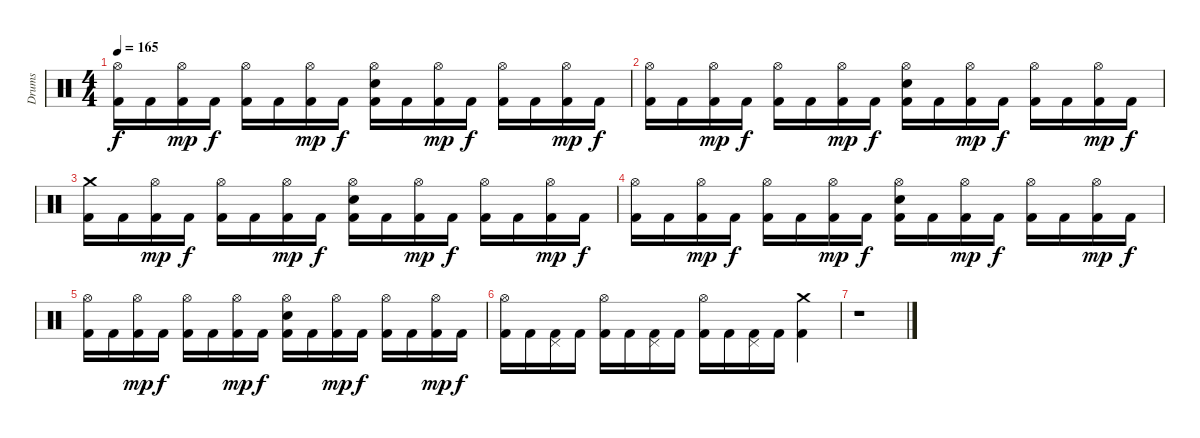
\track ("Drums" "Drums") {instrument percussion}
\staff {score}
\articulation defaults
\ts (4 4)
\tempo 165
\clef neutral
\ks c
("Kick (hit) 2" "Hi-Hat (open)").16{dy f} "Kick (hit) 2".16 ("Kick (hit) 2" "Hi-Hat (open)").16{dy mp} "Kick (hit) 2".16{dy f} ("Kick (hit) 2" "Hi-Hat (open)").16 "Kick (hit) 2".16 ("Kick (hit) 2" "Hi-Hat (open)").16{dy mp} "Kick (hit) 2".16{dy f} ("Kick (hit) 2" "Electric Snare (hit)" "Hi-Hat (open)").16 "Kick (hit) 2".16 ("Kick (hit) 2" "Hi-Hat (open)").16{dy mp} "Kick (hit) 2".16{dy f} ("Kick (hit) 2" "Hi-Hat (open)").16 "Kick (hit) 2".16 ("Kick (hit) 2" "Hi-Hat (open)").16{dy mp} "Kick (hit) 2".16{dy f} |
("Kick (hit) 2" "Hi-Hat (open)").16 "Kick (hit) 2".16 ("Kick (hit) 2" "Hi-Hat (open)").16{dy mp} "Kick (hit) 2".16{dy f} ("Kick (hit) 2" "Hi-Hat (open)").16 "Kick (hit) 2".16 ("Kick (hit) 2" "Hi-Hat (open)").16{dy mp} "Kick (hit) 2".16{dy f} ("Kick (hit) 2" "Electric Snare (hit)" "Hi-Hat (open)").16 "Kick (hit) 2".16 ("Kick (hit) 2" "Hi-Hat (open)").16{dy mp} "Kick (hit) 2".16{dy f} ("Kick (hit) 2" "Hi-Hat (open)").16 "Kick (hit) 2".16 ("Kick (hit) 2" "Hi-Hat (open)").16{dy mp} "Kick (hit) 2".16{dy f} |
("Kick (hit) 2" "Crash medium (hit)").16 "Kick (hit) 2".16 ("Kick (hit) 2" "Hi-Hat (open)").16{dy mp} "Kick (hit) 2".16{dy f} ("Kick (hit) 2" "Hi-Hat (open)").16 "Kick (hit) 2".16 ("Kick (hit) 2" "Hi-Hat (open)").16{dy mp} "Kick (hit) 2".16{dy f} ("Kick (hit) 2" "Electric Snare (hit)" "Hi-Hat (open)").16 "Kick (hit) 2".16 ("Kick (hit) 2" "Hi-Hat (open)").16{dy mp} "Kick (hit) 2".16{dy f} ("Kick (hit) 2" "Hi-Hat (open)").16 "Kick (hit) 2".16 ("Kick (hit) 2" "Hi-Hat (open)").16{dy mp} "Kick (hit) 2".16{dy f} |
("Kick (hit) 2" "Hi-Hat (open)").16 "Kick (hit) 2".16 ("Kick (hit) 2" "Hi-Hat (open)").16{dy mp} "Kick (hit) 2".16{dy f} ("Kick (hit) 2" "Hi-Hat (open)").16 "Kick (hit) 2".16 ("Kick (hit) 2" "Hi-Hat (open)").16{dy mp} "Kick (hit) 2".16{dy f} ("Kick (hit) 2" "Electric Snare (hit)" "Hi-Hat (open)").16 "Kick (hit) 2".16 ("Kick (hit) 2" "Hi-Hat (open)").16{dy mp} "Kick (hit) 2".16{dy f} ("Kick (hit) 2" "Hi-Hat (open)").16 "Kick (hit) 2".16 ("Kick (hit) 2" "Hi-Hat (open)").16{dy mp} "Kick (hit) 2".16{dy f} |
("Kick (hit) 2" "Hi-Hat (open)").16 "Kick (hit) 2".16 ("Kick (hit) 2" "Hi-Hat (open)").16{dy mp} "Kick (hit) 2".16{dy f} ("Kick (hit) 2" "Hi-Hat (open)").16 "Kick (hit) 2".16 ("Kick (hit) 2" "Hi-Hat (open)").16{dy mp} "Kick (hit) 2".16{dy f} ("Kick (hit) 2" "Electric Snare (hit)" "Hi-Hat (open)").16 "Kick (hit) 2".16 ("Kick (hit) 2" "Hi-Hat (open)").16{dy mp} "Kick (hit) 2".16{dy f} ("Kick (hit) 2" "Hi-Hat (open)").16 "Kick (hit) 2".16 ("Kick (hit) 2" "Hi-Hat (open)").16{dy mp} "Kick (hit) 2".16{dy f} |
("Kick (hit) 2" "Hi-Hat (open)").16 "Kick (hit) 2".16 ("Kick (hit) 2" "Pedal Hi-Hat (hit)").16 "Kick (hit) 2".16 ("Kick (hit) 2" "Hi-Hat (open)").16 "Kick (hit) 2".16 ("Kick (hit) 2" "Pedal Hi-Hat (hit)").16 "Kick (hit) 2".16 ("Kick (hit) 2" "Hi-Hat (open)").16 "Kick (hit) 2".16 ("Kick (hit) 2" "Pedal Hi-Hat (hit)").16 "Kick (hit) 2".16 ("Kick (hit) 2" "Crash medium (hit)").4 |
r.1
